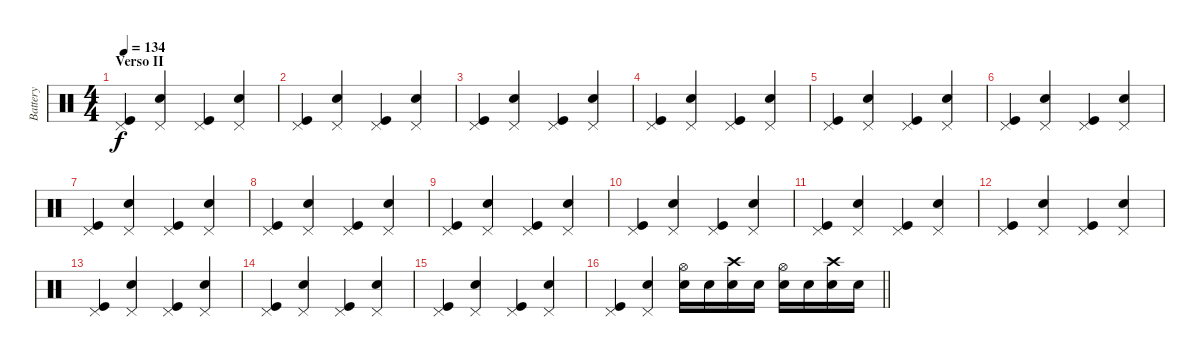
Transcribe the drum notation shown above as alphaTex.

\track ("Battery" "Battery") {instrument percussion}
\staff {score}
\articulation defaults
\ts (4 4)
\section ("" "Verso II")
\tempo 134
\clef neutral
\ks c
("Pedal Hi-Hat (hit)" "Kick (hit)").4{dy f} ("Pedal Hi-Hat (hit)" "Snare (hit) 2").4 ("Pedal Hi-Hat (hit)" "Kick (hit)").4 ("Pedal Hi-Hat (hit)" "Snare (hit) 2").4 |
("Pedal Hi-Hat (hit)" "Kick (hit)").4 ("Pedal Hi-Hat (hit)" "Snare (hit) 2").4 ("Pedal Hi-Hat (hit)" "Kick (hit)").4 ("Pedal Hi-Hat (hit)" "Snare (hit) 2").4 |
("Pedal Hi-Hat (hit)" "Kick (hit)").4 ("Pedal Hi-Hat (hit)" "Snare (hit) 2").4 ("Pedal Hi-Hat (hit)" "Kick (hit)").4 ("Pedal Hi-Hat (hit)" "Snare (hit) 2").4 |
("Pedal Hi-Hat (hit)" "Kick (hit)").4 ("Pedal Hi-Hat (hit)" "Snare (hit) 2").4 ("Pedal Hi-Hat (hit)" "Kick (hit)").4 ("Pedal Hi-Hat (hit)" "Snare (hit) 2").4 |
("Pedal Hi-Hat (hit)" "Kick (hit)").4 ("Pedal Hi-Hat (hit)" "Snare (hit) 2").4 ("Pedal Hi-Hat (hit)" "Kick (hit)").4 ("Pedal Hi-Hat (hit)" "Snare (hit) 2").4 |
("Pedal Hi-Hat (hit)" "Kick (hit)").4 ("Pedal Hi-Hat (hit)" "Snare (hit) 2").4 ("Pedal Hi-Hat (hit)" "Kick (hit)").4 ("Pedal Hi-Hat (hit)" "Snare (hit) 2").4 |
("Pedal Hi-Hat (hit)" "Kick (hit)").4 ("Pedal Hi-Hat (hit)" "Snare (hit) 2").4 ("Pedal Hi-Hat (hit)" "Kick (hit)").4 ("Pedal Hi-Hat (hit)" "Snare (hit) 2").4 |
("Pedal Hi-Hat (hit)" "Kick (hit)").4 ("Pedal Hi-Hat (hit)" "Snare (hit) 2").4 ("Pedal Hi-Hat (hit)" "Kick (hit)").4 ("Pedal Hi-Hat (hit)" "Snare (hit) 2").4 |
("Pedal Hi-Hat (hit)" "Kick (hit)").4 ("Pedal Hi-Hat (hit)" "Snare (hit) 2").4 ("Pedal Hi-Hat (hit)" "Kick (hit)").4 ("Pedal Hi-Hat (hit)" "Snare (hit) 2").4 |
("Pedal Hi-Hat (hit)" "Kick (hit)").4 ("Pedal Hi-Hat (hit)" "Snare (hit) 2").4 ("Pedal Hi-Hat (hit)" "Kick (hit)").4 ("Pedal Hi-Hat (hit)" "Snare (hit) 2").4 |
("Pedal Hi-Hat (hit)" "Kick (hit)").4 ("Pedal Hi-Hat (hit)" "Snare (hit) 2").4 ("Pedal Hi-Hat (hit)" "Kick (hit)").4 ("Pedal Hi-Hat (hit)" "Snare (hit) 2").4 |
("Pedal Hi-Hat (hit)" "Kick (hit)").4 ("Pedal Hi-Hat (hit)" "Snare (hit) 2").4 ("Pedal Hi-Hat (hit)" "Kick (hit)").4 ("Pedal Hi-Hat (hit)" "Snare (hit) 2").4 |
("Pedal Hi-Hat (hit)" "Kick (hit)").4 ("Pedal Hi-Hat (hit)" "Snare (hit) 2").4 ("Pedal Hi-Hat (hit)" "Kick (hit)").4 ("Pedal Hi-Hat (hit)" "Snare (hit) 2").4 |
("Pedal Hi-Hat (hit)" "Kick (hit)").4 ("Pedal Hi-Hat (hit)" "Snare (hit) 2").4 ("Pedal Hi-Hat (hit)" "Kick (hit)").4 ("Pedal Hi-Hat (hit)" "Snare (hit) 2").4 |
("Pedal Hi-Hat (hit)" "Kick (hit)").4 ("Pedal Hi-Hat (hit)" "Snare (hit) 2").4 ("Pedal Hi-Hat (hit)" "Kick (hit)").4 ("Pedal Hi-Hat (hit)" "Snare (hit) 2").4 |
\barLineRight lightlight
("Pedal Hi-Hat (hit)" "Kick (hit)").4 ("Pedal Hi-Hat (hit)" "Snare (hit) 2").4 ("Hi-Hat (open)" "Snare (hit) 2").16 "Snare (hit) 2".16 ("Crash high (hit)" "Snare (hit) 2").16 "Snare (hit) 2".16 ("Hi-Hat (open)" "Snare (hit) 2").16 "Snare (hit) 2".16 ("Crash high (hit)" "Snare (hit) 2").16 "Snare (hit) 2".16
